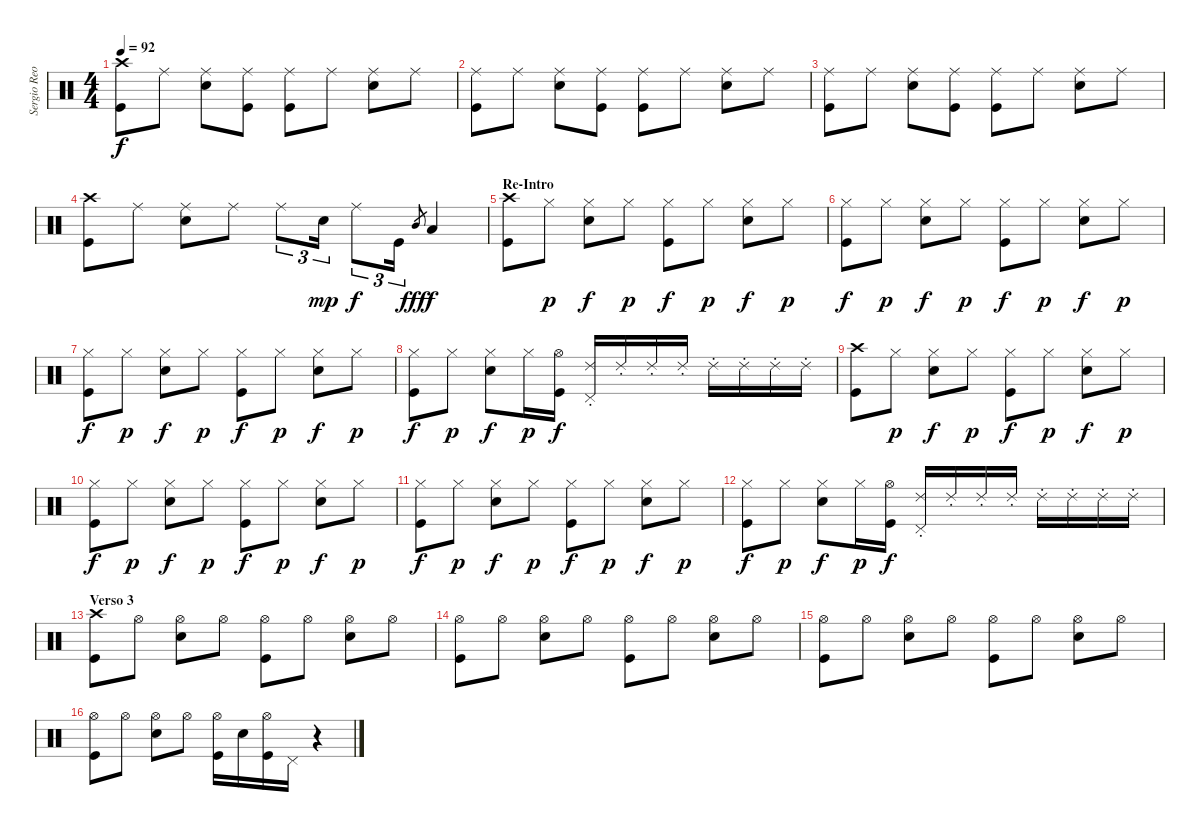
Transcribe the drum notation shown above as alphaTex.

\track ("Sergio Reoli" "Sergio Reo") {instrument percussion}
\staff {score}
\articulation defaults
\ts (4 4)
\tempo 92
\clef neutral
\ks c
("Crash high (hit)" "Kick (hit)").8{dy f} "Ride (middle)".8 ("Ride (middle)" "Electric Snare (hit)").8 ("Ride (middle)" "Kick (hit)").8 ("Ride (middle)" "Kick (hit)").8 "Ride (middle)".8 ("Ride (middle)" "Electric Snare (hit)").8 "Ride (middle)".8 |
("Ride (middle)" "Kick (hit)").8 "Ride (middle)".8 ("Ride (middle)" "Electric Snare (hit)").8 ("Ride (middle)" "Kick (hit)").8 ("Ride (middle)" "Kick (hit)").8 "Ride (middle)".8 ("Ride (middle)" "Electric Snare (hit)").8 "Ride (middle)".8 |
("Ride (middle)" "Kick (hit)").8 "Ride (middle)".8 ("Ride (middle)" "Electric Snare (hit)").8 ("Ride (middle)" "Kick (hit)").8 ("Ride (middle)" "Kick (hit)").8 "Ride (middle)".8 ("Ride (middle)" "Electric Snare (hit)").8 "Ride (middle)".8 |
("Crash high (hit)" "Kick (hit)").8 "Ride (middle)".8 ("Ride (middle)" "Electric Snare (hit)").8 "Ride (middle)".8 "Ride (middle)".8{tu (3 2)} "Electric Snare (hit)".16{tu (3 2) dy mp} "Ride (middle)".8{tu (3 2) dy f} "Kick (hit)".16{tu (3 2)} "Mid Tom (hit)".8{gr dy fff} "Low Tom (hit)".4{dy f} |
\section ("" "Re-Intro")
("Crash high (hit)" "Kick (hit)").8 "Hi-Hat (closed)".8{dy p} ("Hi-Hat (closed)" "Electric Snare (hit)").8{dy f} "Hi-Hat (closed)".8{dy p} ("Hi-Hat (closed)" "Kick (hit)").8{dy f} "Hi-Hat (closed)".8{dy p} ("Hi-Hat (closed)" "Electric Snare (hit)").8{dy f} "Hi-Hat (closed)".8{dy p} |
("Hi-Hat (closed)" "Kick (hit)").8{dy f} "Hi-Hat (closed)".8{dy p} ("Hi-Hat (closed)" "Electric Snare (hit)").8{dy f} "Hi-Hat (closed)".8{dy p} ("Hi-Hat (closed)" "Kick (hit)").8{dy f} "Hi-Hat (closed)".8{dy p} ("Hi-Hat (closed)" "Electric Snare (hit)").8{dy f} "Hi-Hat (closed)".8{dy p} |
("Hi-Hat (closed)" "Kick (hit)").8{dy f} "Hi-Hat (closed)".8{dy p} ("Hi-Hat (closed)" "Electric Snare (hit)").8{dy f} "Hi-Hat (closed)".8{dy p} ("Hi-Hat (closed)" "Kick (hit)").8{dy f} "Hi-Hat (closed)".8{dy p} ("Hi-Hat (closed)" "Electric Snare (hit)").8{dy f} "Hi-Hat (closed)".8{dy p} |
("Hi-Hat (closed)" "Kick (hit)").8{dy f} "Hi-Hat (closed)".8{dy p} ("Hi-Hat (closed)" "Electric Snare (hit)").8{dy f} "Hi-Hat (closed)".16{dy p} ("Hi-Hat (open)" "Kick (hit)").16{dy f} ("Ride (choke) 2" "Pedal Hi-Hat (hit)").16 "Ride (choke) 2".16 "Ride (choke) 2".16 "Ride (choke) 2".16 "Ride (choke) 2".16 "Ride (choke) 2".16 "Ride (choke) 2".16 "Ride (choke) 2".16 |
("Crash high (hit)" "Kick (hit)").8 "Hi-Hat (closed)".8{dy p} ("Hi-Hat (closed)" "Electric Snare (hit)").8{dy f} "Hi-Hat (closed)".8{dy p} ("Hi-Hat (closed)" "Kick (hit)").8{dy f} "Hi-Hat (closed)".8{dy p} ("Hi-Hat (closed)" "Electric Snare (hit)").8{dy f} "Hi-Hat (closed)".8{dy p} |
("Hi-Hat (closed)" "Kick (hit)").8{dy f} "Hi-Hat (closed)".8{dy p} ("Hi-Hat (closed)" "Electric Snare (hit)").8{dy f} "Hi-Hat (closed)".8{dy p} ("Hi-Hat (closed)" "Kick (hit)").8{dy f} "Hi-Hat (closed)".8{dy p} ("Hi-Hat (closed)" "Electric Snare (hit)").8{dy f} "Hi-Hat (closed)".8{dy p} |
("Hi-Hat (closed)" "Kick (hit)").8{dy f} "Hi-Hat (closed)".8{dy p} ("Hi-Hat (closed)" "Electric Snare (hit)").8{dy f} "Hi-Hat (closed)".8{dy p} ("Hi-Hat (closed)" "Kick (hit)").8{dy f} "Hi-Hat (closed)".8{dy p} ("Hi-Hat (closed)" "Electric Snare (hit)").8{dy f} "Hi-Hat (closed)".8{dy p} |
("Hi-Hat (closed)" "Kick (hit)").8{dy f} "Hi-Hat (closed)".8{dy p} ("Hi-Hat (closed)" "Electric Snare (hit)").8{dy f} "Hi-Hat (closed)".16{dy p} ("Hi-Hat (open)" "Kick (hit)").16{dy f} ("Ride (choke) 2" "Pedal Hi-Hat (hit)").16 "Ride (choke) 2".16 "Ride (choke) 2".16 "Ride (choke) 2".16 "Ride (choke) 2".16 "Ride (choke) 2".16 "Ride (choke) 2".16 "Ride (choke) 2".16 |
\section ("" "Verso 3")
("Crash high (hit)" "Kick (hit)").8 "Hi-Hat (open)".8 ("Hi-Hat (open)" "Electric Snare (hit)").8 "Hi-Hat (open)".8 ("Hi-Hat (open)" "Kick (hit)").8 "Hi-Hat (open)".8 ("Hi-Hat (open)" "Electric Snare (hit)").8 "Hi-Hat (open)".8 |
("Hi-Hat (open)" "Kick (hit)").8 "Hi-Hat (open)".8 ("Hi-Hat (open)" "Electric Snare (hit)").8 "Hi-Hat (open)".8 ("Hi-Hat (open)" "Kick (hit)").8 "Hi-Hat (open)".8 ("Hi-Hat (open)" "Electric Snare (hit)").8 "Hi-Hat (open)".8 |
("Hi-Hat (open)" "Kick (hit)").8 "Hi-Hat (open)".8 ("Hi-Hat (open)" "Electric Snare (hit)").8 "Hi-Hat (open)".8 ("Hi-Hat (open)" "Kick (hit)").8 "Hi-Hat (open)".8 ("Hi-Hat (open)" "Electric Snare (hit)").8 "Hi-Hat (open)".8 |
("Hi-Hat (open)" "Kick (hit)").8 "Hi-Hat (open)".8 ("Hi-Hat (open)" "Electric Snare (hit)").8 "Hi-Hat (open)".8 ("Hi-Hat (open)" "Kick (hit)").16 "Electric Snare (hit)".16 ("Hi-Hat (open)" "Kick (hit)").16 "Pedal Hi-Hat (hit)".16 r.4
